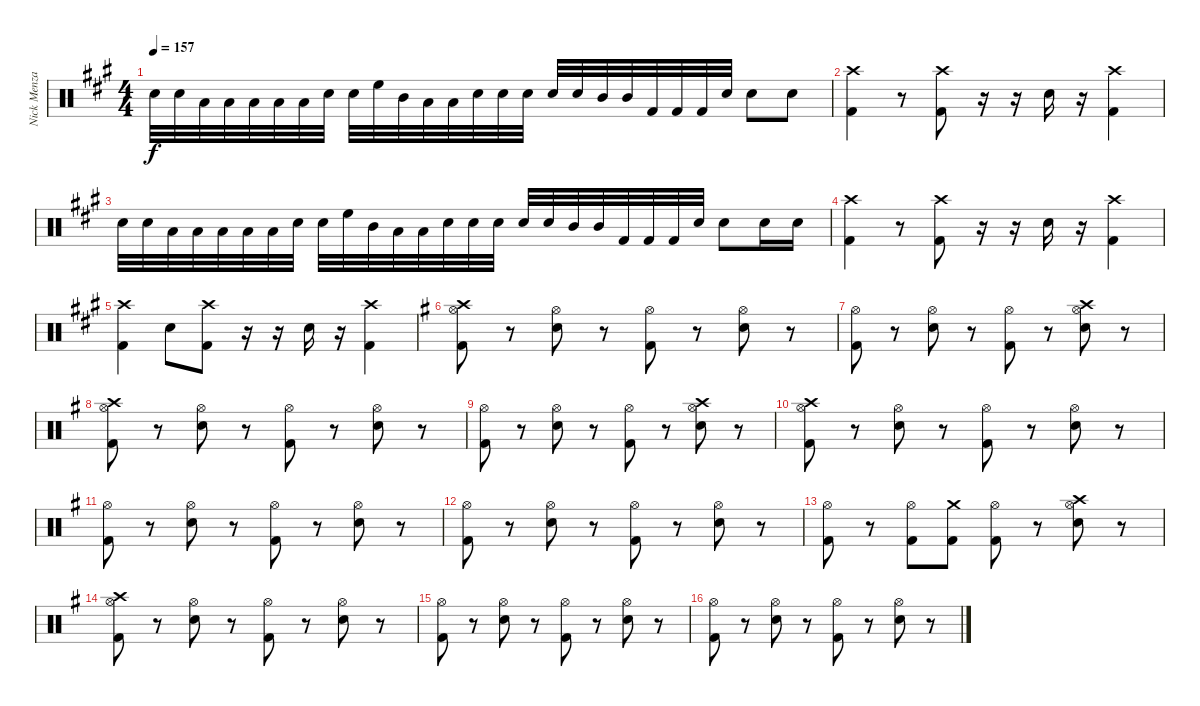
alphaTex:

\track ("Nick Menza" "Nick Menza") {instrument percussion}
\staff {score}
\articulation defaults
\ts (4 4)
\tempo 157
\clef neutral
\ks a "Snare (hit) 2".32{dy f} "Snare (hit) 2".32 "Low Tom (hit)".32 "Low Tom (hit)".32 "Low Floor Tom (hit)".32 "Low Floor Tom (hit)".32 "Low Floor Tom (hit)".32 "Snare (hit) 2".32 "Snare (hit) 2".32 "High Floor Tom (hit)".32 "Mid Tom (hit)".32 "Low Tom (hit)".32 "Low Tom (hit)".32 "Snare (hit) 2".32 "Snare (hit) 2".32 "Snare (hit) 2".32 "Snare (hit) 2".32 "Snare (hit) 2".32 "Mid Tom (hit)".32 "Mid Tom (hit)".32 "Kick (hit) 2".32 "Kick (hit) 2".32 "Kick (hit) 2".32 "Snare (hit) 2".32 "Snare (hit) 2".8 "Snare (hit) 2".8
|
("Crash high (hit)" "Kick (hit) 2").4 r.8 ("Crash high (hit)" "Kick (hit) 2").8 r.16 r.16 "Snare (hit) 2".16 r.16 ("Kick (hit) 2" "Crash high (hit)").4 |
"Snare (hit) 2".32 "Snare (hit) 2".32 "Low Tom (hit)".32 "Low Tom (hit)".32 "Low Floor Tom (hit)".32 "Low Floor Tom (hit)".32 "Low Floor Tom (hit)".32 "Snare (hit) 2".32 "Snare (hit) 2".32 "High Floor Tom (hit)".32 "Mid Tom (hit)".32 "Low Tom (hit)".32 "Low Tom (hit)".32 "Snare (hit) 2".32 "Snare (hit) 2".32 "Snare (hit) 2".32 "Snare (hit) 2".32 "Snare (hit) 2".32 "Mid Tom (hit)".32 "Mid Tom (hit)".32 "Kick (hit) 2".32 "Kick (hit) 2".32 "Kick (hit) 2".32 "Snare (hit) 2".32 "Snare (hit) 2".8 "Snare (hit) 2".16 "Snare (hit) 2".16 |
("Crash high (hit)" "Kick (hit) 2").4 r.8 ("Crash high (hit)" "Kick (hit) 2").8 r.16 r.16 "Snare (hit) 2".16 r.16 ("Kick (hit) 2" "Crash high (hit)").4 |
("Crash high (hit)" "Kick (hit) 2").4 "Snare (hit) 2".8 ("Crash high (hit)" "Kick (hit) 2").8 r.16 r.16 "Snare (hit) 2".16 r.16 ("Kick (hit) 2" "Crash high (hit)").4 |
\ks g
("Hi-Hat (open)" "Kick (hit) 2" "Crash high (hit)").8 r.8 ("Hi-Hat (open)" "Snare (hit) 2").8 r.8 ("Hi-Hat (open)" "Kick (hit) 2").8 r.8 ("Hi-Hat (open)" "Snare (hit) 2").8 r.8 |
("Hi-Hat (open)" "Kick (hit) 2").8 r.8 ("Hi-Hat (open)" "Snare (hit) 2").8 r.8 ("Hi-Hat (open)" "Kick (hit) 2").8 r.8 ("Hi-Hat (open)" "Snare (hit) 2" "Crash high (hit)").8 r.8 |
("Hi-Hat (open)" "Crash high (hit)" "Kick (hit) 2").8 r.8 ("Hi-Hat (open)" "Snare (hit) 2").8 r.8 ("Hi-Hat (open)" "Kick (hit) 2").8 r.8 ("Hi-Hat (open)" "Snare (hit) 2").8 r.8 |
("Hi-Hat (open)" "Kick (hit) 2").8 r.8 ("Hi-Hat (open)" "Snare (hit) 2").8 r.8 ("Hi-Hat (open)" "Kick (hit) 2").8 r.8 ("Hi-Hat (open)" "Snare (hit) 2" "Crash high (hit)").8 r.8 |
("Hi-Hat (open)" "Kick (hit) 2" "Crash high (hit)").8 r.8 ("Hi-Hat (open)" "Snare (hit) 2").8 r.8 ("Hi-Hat (open)" "Kick (hit) 2").8 r.8 ("Hi-Hat (open)" "Snare (hit) 2").8 r.8 |
("Hi-Hat (open)" "Kick (hit) 2").8 r.8 ("Hi-Hat (open)" "Snare (hit) 2").8 r.8 ("Hi-Hat (open)" "Kick (hit) 2").8 r.8 ("Hi-Hat (open)" "Snare (hit) 2").8 r.8 |
("Hi-Hat (open)" "Kick (hit) 2").8 r.8 ("Hi-Hat (open)" "Snare (hit) 2").8 r.8 ("Hi-Hat (open)" "Kick (hit) 2").8 r.8 ("Hi-Hat (open)" "Snare (hit) 2").8 r.8 |
("Hi-Hat (open)" "Kick (hit) 2").8 r.8 ("Hi-Hat (open)" "Kick (hit) 2").8 ("Kick (hit) 2" "Crash medium (hit)").8 ("Hi-Hat (open)" "Kick (hit) 2").8 r.8 ("Hi-Hat (open)" "Snare (hit) 2" "Crash high (hit)").8 r.8 |
("Hi-Hat (open)" "Kick (hit) 2" "Crash high (hit)").8 r.8 ("Hi-Hat (open)" "Snare (hit) 2").8 r.8 ("Hi-Hat (open)" "Kick (hit) 2").8 r.8 ("Hi-Hat (open)" "Snare (hit) 2").8 r.8 |
("Hi-Hat (open)" "Kick (hit) 2").8 r.8 ("Hi-Hat (open)" "Snare (hit) 2").8 r.8 ("Hi-Hat (open)" "Kick (hit) 2").8 r.8 ("Hi-Hat (open)" "Snare (hit) 2").8 r.8 |
("Hi-Hat (open)" "Kick (hit) 2").8 r.8 ("Hi-Hat (open)" "Snare (hit) 2").8 r.8 ("Hi-Hat (open)" "Kick (hit) 2").8 r.8 ("Hi-Hat (open)" "Snare (hit) 2").8 r.8
